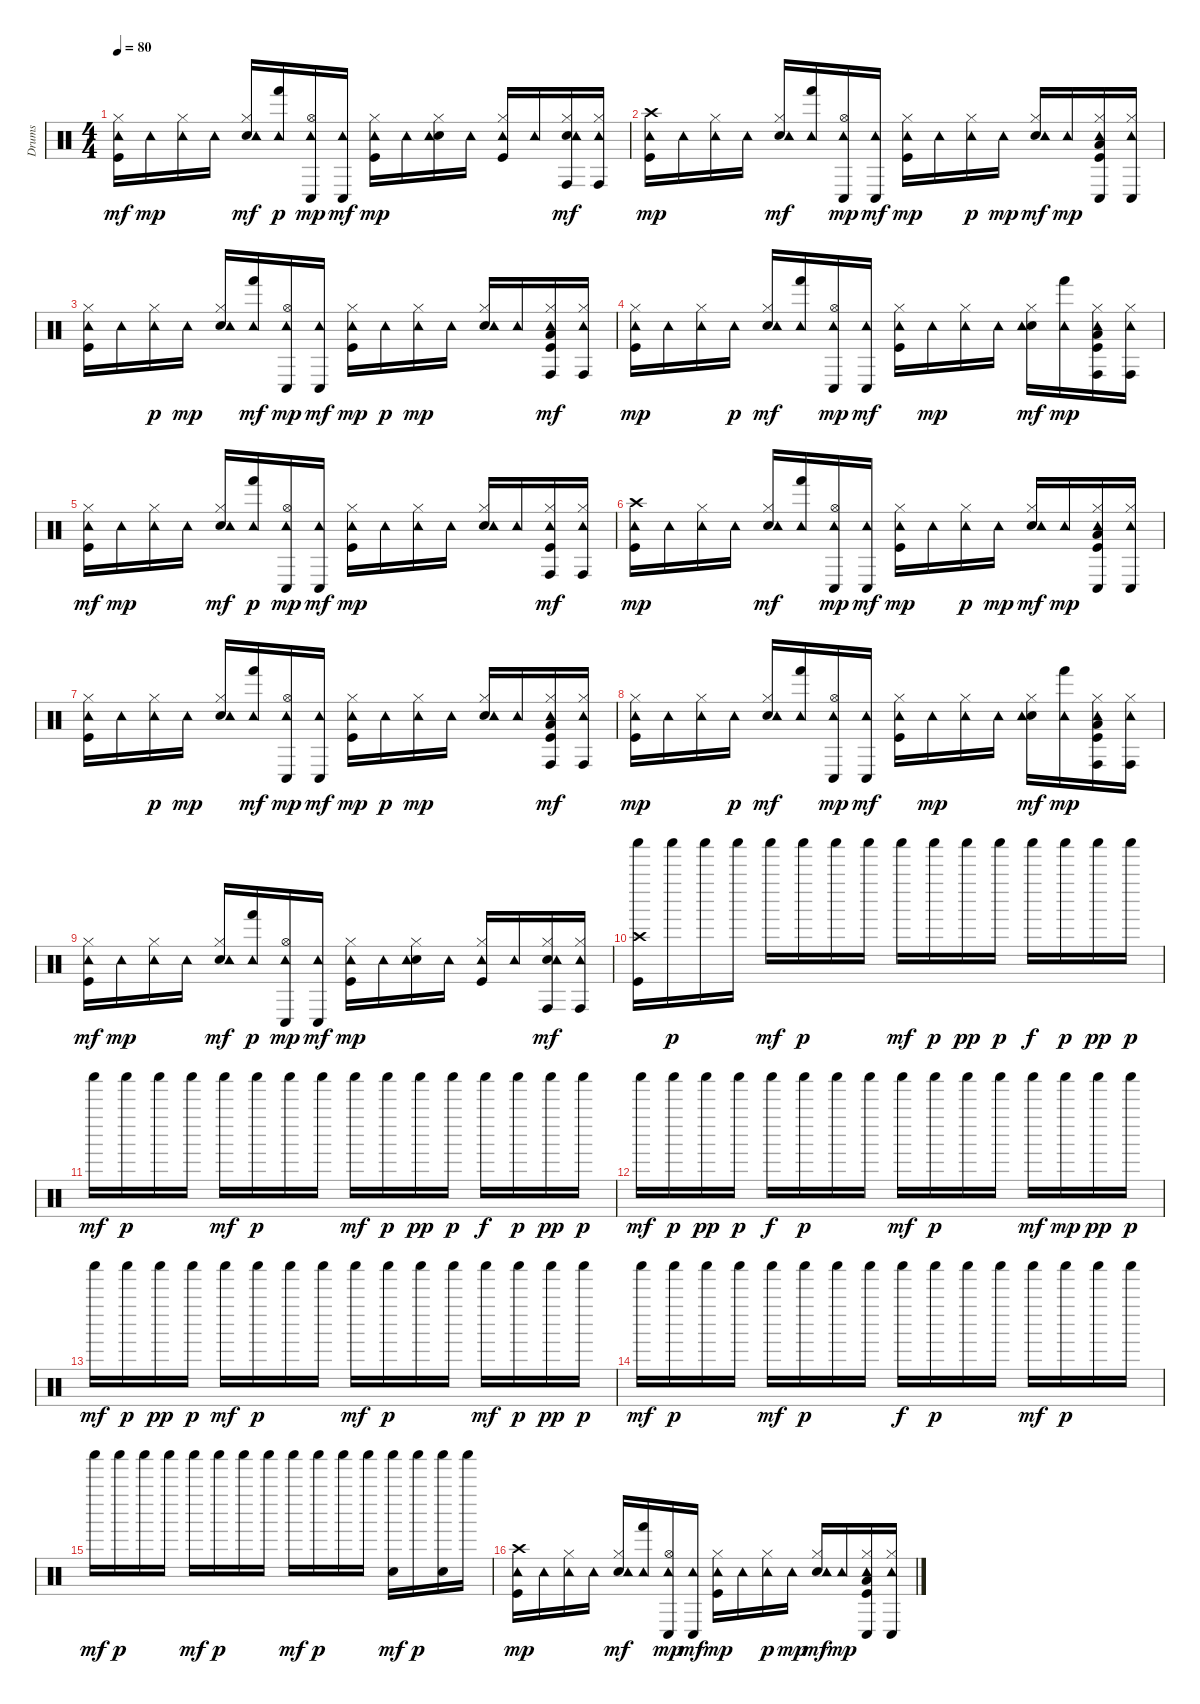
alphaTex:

\track ("Drums" "Drums") {instrument percussion}
\staff {score}
\articulation defaults
\ts (4 4)
\tempo 80
\clef neutral
\ks c
("Kick (hit)" "Hi-Hat (closed)" "Tambourine (hit)").16{dy mf} "Tambourine (hit)".16{dy mp} ("Hi-Hat (closed)" "Tambourine (hit)").16 "Tambourine (hit)".16 ("Electric Snare (hit)" "Hi-Hat (closed)" "Tambourine (hit)").16{dy mf} ("Tambourine (hit)" "Hand (hit)").16{dy p} ("Hi-Hat (open)" "Tambourine (hit)" "Conga low (hit)").16{dy mp} ("Tambourine (hit)" "Conga low (hit)").16{dy mf} ("Kick (hit)" "Hi-Hat (closed)" "Tambourine (hit)").16{dy mp} "Tambourine (hit)".16 ("Electric Snare (hit)" "Hi-Hat (closed)" "Tambourine (hit)").16 "Tambourine (hit)".16 ("Kick (hit)" "Hi-Hat (closed)" "Tambourine (hit)").16 "Tambourine (hit)".16 ("Electric Snare (hit)" "Hi-Hat (closed)" "Tambourine (hit)" "Conga high (hit)").16{dy mf} ("Hi-Hat (closed)" "Tambourine (hit)" "Conga high (hit)").16 |
("Kick (hit)" "Crash high (hit)" "Tambourine (hit)").16{dy mp} "Tambourine (hit)".16 ("Hi-Hat (closed)" "Tambourine (hit)").16 "Tambourine (hit)".16 ("Electric Snare (hit)" "Hi-Hat (closed)" "Tambourine (hit)").16{dy mf} ("Tambourine (hit)" "Hand (hit)").16 ("Hi-Hat (open)" "Tambourine (hit)" "Conga low (hit)").16{dy mp} ("Tambourine (hit)" "Conga low (hit)").16{dy mf} ("Kick (hit)" "Hi-Hat (closed)" "Tambourine (hit)").16{dy mp} "Tambourine (hit)".16 ("Hi-Hat (closed)" "Tambourine (hit)").16{dy p} "Tambourine (hit)".16{dy mp} ("Electric Snare (hit)" "Hi-Hat (closed)" "Tambourine (hit)").16{dy mf} "Tambourine (hit)".16{dy mp} ("Kick (hit)" "Hi-Hat (closed)" "Low Tom (hit)" "Tambourine (hit)" "Conga low (hit)").16 ("Hi-Hat (closed)" "Tambourine (hit)" "Conga low (hit)").16 |
("Kick (hit)" "Hi-Hat (closed)" "Tambourine (hit)").16 "Tambourine (hit)".16 ("Hi-Hat (closed)" "Tambourine (hit)").16{dy p} "Tambourine (hit)".16{dy mp} ("Electric Snare (hit)" "Hi-Hat (closed)" "Tambourine (hit)").16 ("Tambourine (hit)" "Hand (hit)").16{dy mf} ("Hi-Hat (open)" "Tambourine (hit)" "Conga low (hit)").16{dy mp} ("Tambourine (hit)" "Conga low (hit)").16{dy mf} ("Kick (hit)" "Hi-Hat (closed)" "Tambourine (hit)").16{dy mp} "Tambourine (hit)".16{dy p} ("Hi-Hat (closed)" "Tambourine (hit)").16{dy mp} "Tambourine (hit)".16 ("Electric Snare (hit)" "Hi-Hat (closed)" "Tambourine (hit)").16 "Tambourine (hit)".16 ("Kick (hit)" "Hi-Hat (closed)" "Low Tom (hit)" "Tambourine (hit)" "Conga high (hit)").16{dy mf} ("Hi-Hat (closed)" "Tambourine (hit)" "Conga high (hit)").16 |
("Kick (hit)" "Hi-Hat (closed)" "Tambourine (hit)").16{dy mp} "Tambourine (hit)".16 ("Hi-Hat (closed)" "Tambourine (hit)").16 "Tambourine (hit)".16{dy p} ("Electric Snare (hit)" "Hi-Hat (closed)" "Tambourine (hit)").16{dy mf} ("Tambourine (hit)" "Hand (hit)").16 ("Hi-Hat (open)" "Tambourine (hit)" "Conga low (hit)").16{dy mp} ("Tambourine (hit)" "Conga low (hit)").16{dy mf} ("Kick (hit)" "Hi-Hat (closed)" "Tambourine (hit)").16 "Tambourine (hit)".16{dy mp} ("Hi-Hat (closed)" "Tambourine (hit)").16 "Tambourine (hit)".16 ("Electric Snare (hit)" "Hi-Hat (closed)" "Tambourine (hit)").16{dy mf} ("Tambourine (hit)" "Hand (hit)").16{dy mp} ("Kick (hit)" "Hi-Hat (closed)" "Low Tom (hit)" "Tambourine (hit)" "Conga high (hit)").16 ("Hi-Hat (closed)" "Tambourine (hit)" "Conga high (hit)").16 |
("Kick (hit)" "Hi-Hat (closed)" "Tambourine (hit)").16{dy mf} "Tambourine (hit)".16{dy mp} ("Hi-Hat (closed)" "Tambourine (hit)").16 "Tambourine (hit)".16 ("Electric Snare (hit)" "Hi-Hat (closed)" "Tambourine (hit)").16{dy mf} ("Tambourine (hit)" "Hand (hit)").16{dy p} ("Hi-Hat (open)" "Tambourine (hit)" "Conga low (hit)").16{dy mp} ("Tambourine (hit)" "Conga low (hit)").16{dy mf} ("Kick (hit)" "Hi-Hat (closed)" "Tambourine (hit)").16{dy mp} "Tambourine (hit)".16 ("Hi-Hat (closed)" "Tambourine (hit)").16 "Tambourine (hit)".16 ("Electric Snare (hit)" "Hi-Hat (closed)" "Tambourine (hit)").16 "Tambourine (hit)".16 ("Kick (hit)" "Hi-Hat (closed)" "Tambourine (hit)" "Conga high (hit)").16{dy mf} ("Hi-Hat (closed)" "Tambourine (hit)" "Conga high (hit)").16 |
("Kick (hit)" "Crash high (hit)" "Tambourine (hit)").16{dy mp} "Tambourine (hit)".16 ("Hi-Hat (closed)" "Tambourine (hit)").16 "Tambourine (hit)".16 ("Electric Snare (hit)" "Hi-Hat (closed)" "Tambourine (hit)").16{dy mf} ("Tambourine (hit)" "Hand (hit)").16 ("Hi-Hat (open)" "Tambourine (hit)" "Conga low (hit)").16{dy mp} ("Tambourine (hit)" "Conga low (hit)").16{dy mf} ("Kick (hit)" "Hi-Hat (closed)" "Tambourine (hit)").16{dy mp} "Tambourine (hit)".16 ("Hi-Hat (closed)" "Tambourine (hit)").16{dy p} "Tambourine (hit)".16{dy mp} ("Electric Snare (hit)" "Hi-Hat (closed)" "Tambourine (hit)").16{dy mf} "Tambourine (hit)".16{dy mp} ("Kick (hit)" "Hi-Hat (closed)" "Low Tom (hit)" "Tambourine (hit)" "Conga low (hit)").16 ("Hi-Hat (closed)" "Tambourine (hit)" "Conga low (hit)").16 |
("Kick (hit)" "Hi-Hat (closed)" "Tambourine (hit)").16 "Tambourine (hit)".16 ("Hi-Hat (closed)" "Tambourine (hit)").16{dy p} "Tambourine (hit)".16{dy mp} ("Electric Snare (hit)" "Hi-Hat (closed)" "Tambourine (hit)").16 ("Tambourine (hit)" "Hand (hit)").16{dy mf} ("Hi-Hat (open)" "Tambourine (hit)" "Conga low (hit)").16{dy mp} ("Tambourine (hit)" "Conga low (hit)").16{dy mf} ("Kick (hit)" "Hi-Hat (closed)" "Tambourine (hit)").16{dy mp} "Tambourine (hit)".16{dy p} ("Hi-Hat (closed)" "Tambourine (hit)").16{dy mp} "Tambourine (hit)".16 ("Electric Snare (hit)" "Hi-Hat (closed)" "Tambourine (hit)").16 "Tambourine (hit)".16 ("Kick (hit)" "Hi-Hat (closed)" "Low Tom (hit)" "Tambourine (hit)" "Conga high (hit)").16{dy mf} ("Hi-Hat (closed)" "Tambourine (hit)" "Conga high (hit)").16 |
("Kick (hit)" "Hi-Hat (closed)" "Tambourine (hit)").16{dy mp} "Tambourine (hit)".16 ("Hi-Hat (closed)" "Tambourine (hit)").16 "Tambourine (hit)".16{dy p} ("Electric Snare (hit)" "Hi-Hat (closed)" "Tambourine (hit)").16{dy mf} ("Tambourine (hit)" "Hand (hit)").16 ("Hi-Hat (open)" "Tambourine (hit)" "Conga low (hit)").16{dy mp} ("Tambourine (hit)" "Conga low (hit)").16{dy mf} ("Kick (hit)" "Hi-Hat (closed)" "Tambourine (hit)").16 "Tambourine (hit)".16{dy mp} ("Hi-Hat (closed)" "Tambourine (hit)").16 "Tambourine (hit)".16 ("Electric Snare (hit)" "Hi-Hat (closed)" "Tambourine (hit)").16{dy mf} ("Tambourine (hit)" "Hand (hit)").16{dy mp} ("Kick (hit)" "Hi-Hat (closed)" "Low Tom (hit)" "Tambourine (hit)" "Conga high (hit)").16 ("Hi-Hat (closed)" "Tambourine (hit)" "Conga high (hit)").16 |
("Kick (hit)" "Hi-Hat (closed)" "Tambourine (hit)").16{dy mf} "Tambourine (hit)".16{dy mp} ("Hi-Hat (closed)" "Tambourine (hit)").16 "Tambourine (hit)".16 ("Electric Snare (hit)" "Hi-Hat (closed)" "Tambourine (hit)").16{dy mf} ("Tambourine (hit)" "Hand (hit)").16{dy p} ("Hi-Hat (open)" "Tambourine (hit)" "Conga low (hit)").16{dy mp} ("Tambourine (hit)" "Conga low (hit)").16{dy mf} ("Kick (hit)" "Hi-Hat (closed)" "Tambourine (hit)").16{dy mp} "Tambourine (hit)".16 ("Electric Snare (hit)" "Hi-Hat (closed)" "Tambourine (hit)").16 "Tambourine (hit)".16 ("Kick (hit)" "Hi-Hat (closed)" "Tambourine (hit)").16 "Tambourine (hit)".16 ("Electric Snare (hit)" "Hi-Hat (closed)" "Tambourine (hit)" "Conga high (hit)").16{dy mf} ("Hi-Hat (closed)" "Tambourine (hit)" "Conga high (hit)").16 |
("Kick (hit)" "Crash high (hit)" "Shaker (hit)").16{balance 15} "Shaker (hit)".16{dy p} "Shaker (hit)".16 "Shaker (hit)".16 "Shaker (hit)".16{dy mf} "Shaker (hit)".16{dy p} "Shaker (hit)".16 "Shaker (hit)".16 "Shaker (hit)".16{dy mf} "Shaker (hit)".16{dy p} "Shaker (hit)".16{dy pp} "Shaker (hit)".16{dy p} "Shaker (hit)".16{dy f} "Shaker (hit)".16{dy p} "Shaker (hit)".16{dy pp} "Shaker (hit)".16{dy p} |
"Shaker (hit)".16{dy mf} "Shaker (hit)".16{dy p} "Shaker (hit)".16 "Shaker (hit)".16 "Shaker (hit)".16{dy mf} "Shaker (hit)".16{dy p} "Shaker (hit)".16 "Shaker (hit)".16 "Shaker (hit)".16{dy mf} "Shaker (hit)".16{dy p} "Shaker (hit)".16{dy pp} "Shaker (hit)".16{dy p} "Shaker (hit)".16{dy f} "Shaker (hit)".16{dy p} "Shaker (hit)".16{dy pp} "Shaker (hit)".16{dy p} |
"Shaker (hit)".16{dy mf} "Shaker (hit)".16{dy p} "Shaker (hit)".16{dy pp} "Shaker (hit)".16{dy p} "Shaker (hit)".16{dy f} "Shaker (hit)".16{dy p} "Shaker (hit)".16 "Shaker (hit)".16 "Shaker (hit)".16{dy mf} "Shaker (hit)".16{dy p} "Shaker (hit)".16 "Shaker (hit)".16 "Shaker (hit)".16{dy mf} "Shaker (hit)".16{dy mp} "Shaker (hit)".16{dy pp} "Shaker (hit)".16{dy p} |
"Shaker (hit)".16{dy mf} "Shaker (hit)".16{dy p} "Shaker (hit)".16{dy pp} "Shaker (hit)".16{dy p} "Shaker (hit)".16{dy mf} "Shaker (hit)".16{dy p} "Shaker (hit)".16 "Shaker (hit)".16 "Shaker (hit)".16{dy mf} "Shaker (hit)".16{dy p} "Shaker (hit)".16 "Shaker (hit)".16 "Shaker (hit)".16{dy mf} "Shaker (hit)".16{dy p} "Shaker (hit)".16{dy pp} "Shaker (hit)".16{dy p} |
"Shaker (hit)".16{dy mf} "Shaker (hit)".16{dy p} "Shaker (hit)".16 "Shaker (hit)".16 "Shaker (hit)".16{dy mf} "Shaker (hit)".16{dy p} "Shaker (hit)".16 "Shaker (hit)".16 "Shaker (hit)".16{dy f} "Shaker (hit)".16{dy p} "Shaker (hit)".16 "Shaker (hit)".16 "Shaker (hit)".16{dy mf} "Shaker (hit)".16{dy p} "Shaker (hit)".16 "Shaker (hit)".16 |
"Shaker (hit)".16{dy mf} "Shaker (hit)".16{dy p} "Shaker (hit)".16 "Shaker (hit)".16 "Shaker (hit)".16{dy mf} "Shaker (hit)".16{dy p} "Shaker (hit)".16 "Shaker (hit)".16 "Shaker (hit)".16{dy mf} "Shaker (hit)".16{dy p} "Shaker (hit)".16 "Shaker (hit)".16 ("Snare (hit)" "Shaker (hit)").16{dy mf} "Shaker (hit)".16{dy p} ("Electric Snare (hit)" "Shaker (hit)").16 "Shaker (hit)".16 |
("Kick (hit)" "Crash high (hit)" "Tambourine (hit)").16{dy mp} "Tambourine (hit)".16 ("Hi-Hat (closed)" "Tambourine (hit)").16 "Tambourine (hit)".16 ("Electric Snare (hit)" "Hi-Hat (closed)" "Tambourine (hit)").16{dy mf} ("Tambourine (hit)" "Hand (hit)").16 ("Hi-Hat (open)" "Tambourine (hit)" "Conga low (hit)").16{dy mp} ("Tambourine (hit)" "Conga low (hit)").16{dy mf} ("Kick (hit)" "Hi-Hat (closed)" "Tambourine (hit)").16{dy mp} "Tambourine (hit)".16 ("Hi-Hat (closed)" "Tambourine (hit)").16{dy p} "Tambourine (hit)".16{dy mp} ("Electric Snare (hit)" "Hi-Hat (closed)" "Tambourine (hit)").16{dy mf} "Tambourine (hit)".16{dy mp} ("Kick (hit)" "Hi-Hat (closed)" "Low Tom (hit)" "Tambourine (hit)" "Conga low (hit)").16 ("Hi-Hat (closed)" "Tambourine (hit)" "Conga low (hit)").16
